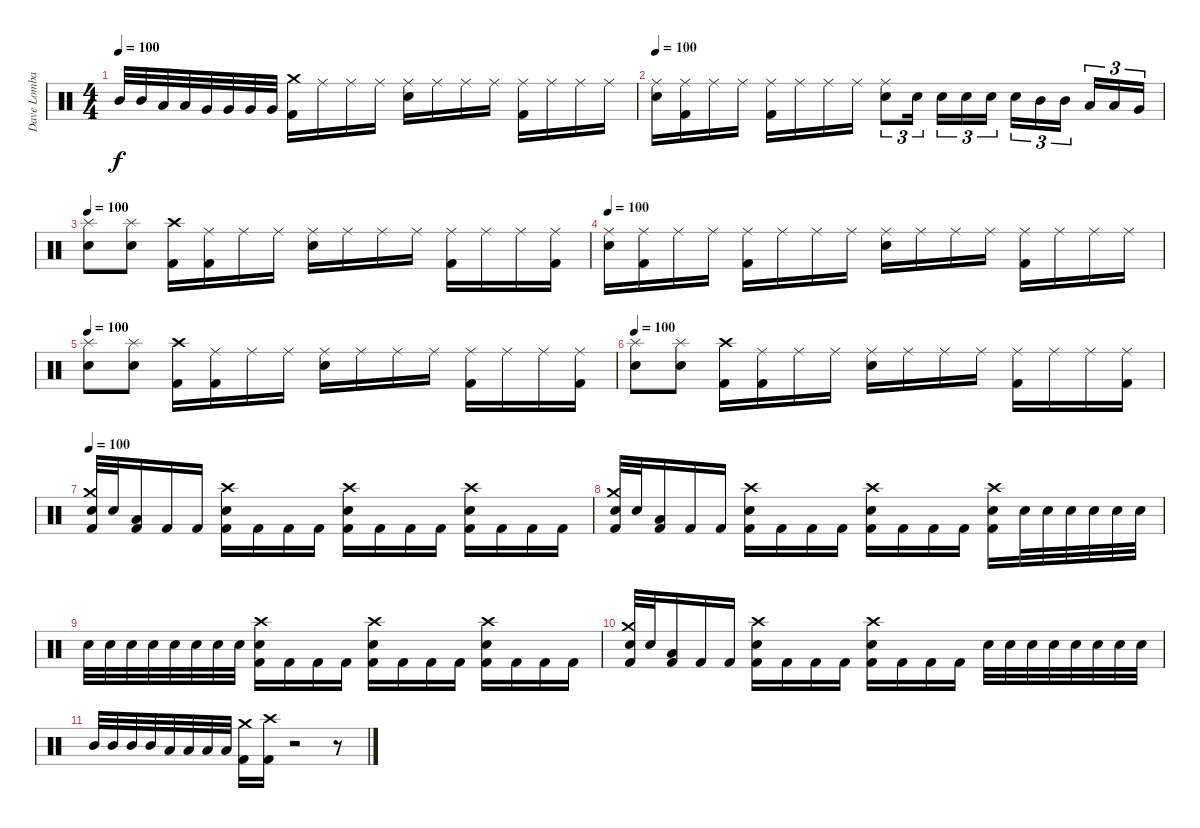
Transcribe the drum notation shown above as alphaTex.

\track ("Dave Lombardo" "Dave Lomba") {instrument percussion}
\staff {score}
\articulation defaults
\ts (4 4)
\tempo 100
\clef neutral
\ks c "Mid Tom (hit)".32{dy f} "Mid Tom (hit)".32 "Low Tom (hit)".32 "Low Tom (hit)".32 "Very Low Tom (hit)".32 "Very Low Tom (hit)".32 "Very Low Tom (hit)".32 "Very Low Tom (hit)".32
("Kick (hit) 2" "Crash medium (hit)").16 "Ride (middle)".16 "Ride (middle)".16 "Ride (middle)".16 ("Electric Snare (hit)" "Ride (middle)").16 "Ride (middle)".16 "Ride (middle)".16 "Ride (middle)".16 ("Kick (hit) 2" "Ride (middle)").16 "Ride (middle)".16 "Ride (middle)".16 "Ride (middle)".16 |
\tempo 100
("Electric Snare (hit)" "Ride (middle)").16 ("Kick (hit) 2" "Ride (middle)").16 "Ride (middle)".16 "Ride (middle)".16 ("Kick (hit) 2" "Ride (middle)").16 "Ride (middle)".16 "Ride (middle)".16 "Ride (middle)".16 ("Electric Snare (hit)" "Ride (middle)").8{tu (3 2)} "Electric Snare (hit)".16{tu (3 2)} "Electric Snare (hit)".16{tu (3 2)} "Electric Snare (hit)".16{tu (3 2)} "Electric Snare (hit)".16{tu (3 2)} "Electric Snare (hit)".16{tu (3 2)} "Mid Tom (hit)".16{tu (3 2)} "Mid Tom (hit)".16{tu (3 2)} "Low Tom (hit)".16{tu (3 2)} "Low Tom (hit)".16{tu (3 2)} "Very Low Tom (hit)".16{tu (3 2)} |
\tempo 100
("Splash (hit)" "Electric Snare (hit)").8 ("Splash (hit)" "Electric Snare (hit)").8 ("Kick (hit) 2" "Crash high (hit)").16 ("Kick (hit) 2" "Ride (middle)").16 "Ride (middle)".16 "Ride (middle)".16 ("Electric Snare (hit)" "Ride (middle)").16 "Ride (middle)".16 "Ride (middle)".16 "Ride (middle)".16 ("Kick (hit) 2" "Ride (middle)").16 "Ride (middle)".16 "Ride (middle)".16 ("Kick (hit) 2" "Ride (middle)").16 |
\tempo 100
("Electric Snare (hit)" "Ride (middle)").16 ("Kick (hit) 2" "Ride (middle)").16 "Ride (middle)".16 "Ride (middle)".16 ("Kick (hit) 2" "Ride (middle)").16 "Ride (middle)".16 "Ride (middle)".16 "Ride (middle)".16 ("Electric Snare (hit)" "Ride (middle)").16 "Ride (middle)".16 "Ride (middle)".16 "Ride (middle)".16 ("Kick (hit) 2" "Ride (middle)").16 "Ride (middle)".16 "Ride (middle)".16 "Ride (middle)".16 |
\tempo 100
("Splash (hit)" "Electric Snare (hit)").8 ("Splash (hit)" "Electric Snare (hit)").8 ("Kick (hit) 2" "Crash high (hit)").16 ("Kick (hit) 2" "Ride (middle)").16 "Ride (middle)".16 "Ride (middle)".16 ("Electric Snare (hit)" "Ride (middle)").16 "Ride (middle)".16 "Ride (middle)".16 "Ride (middle)".16 ("Kick (hit) 2" "Ride (middle)").16 "Ride (middle)".16 "Ride (middle)".16 ("Kick (hit) 2" "Ride (middle)").16 |
\tempo 100
("Splash (hit)" "Electric Snare (hit)").8 ("Splash (hit)" "Electric Snare (hit)").8 ("Kick (hit) 2" "Crash high (hit)").16 ("Kick (hit) 2" "Ride (middle)").16 "Ride (middle)".16 "Ride (middle)".16 ("Electric Snare (hit)" "Ride (middle)").16 "Ride (middle)".16 "Ride (middle)".16 "Ride (middle)".16 ("Kick (hit) 2" "Ride (middle)").16 "Ride (middle)".16 "Ride (middle)".16 ("Kick (hit) 2" "Ride (middle)").16 |
\tempo 100
("Crash medium (hit)" "Electric Snare (hit)" "Kick (hit) 2").32 "Electric Snare (hit)".32 ("Low Tom (hit)" "Kick (hit) 2").16 "Kick (hit) 2".16 "Kick (hit) 2".16 ("Crash high (hit)" "Electric Snare (hit)" "Kick (hit) 2").16 "Kick (hit) 2".16 "Kick (hit) 2".16 "Kick (hit) 2".16 ("Crash high (hit)" "Electric Snare (hit)" "Kick (hit) 2").16 "Kick (hit) 2".16 "Kick (hit) 2".16 "Kick (hit) 2".16 ("Crash high (hit)" "Electric Snare (hit)" "Kick (hit) 2").16 "Kick (hit) 2".16 "Kick (hit) 2".16 "Kick (hit) 2".16 |
("Crash medium (hit)" "Electric Snare (hit)" "Kick (hit) 2").32 "Electric Snare (hit)".32 ("Low Tom (hit)" "Kick (hit) 2").16 "Kick (hit) 2".16 "Kick (hit) 2".16 ("Crash high (hit)" "Electric Snare (hit)" "Kick (hit) 2").16 "Kick (hit) 2".16 "Kick (hit) 2".16 "Kick (hit) 2".16 ("Crash high (hit)" "Electric Snare (hit)" "Kick (hit) 2").16 "Kick (hit) 2".16 "Kick (hit) 2".16 "Kick (hit) 2".16 ("Crash high (hit)" "Electric Snare (hit)" "Kick (hit) 2").16 "Electric Snare (hit)".32 "Electric Snare (hit)".32 "Electric Snare (hit)".32 "Electric Snare (hit)".32 "Electric Snare (hit)".32 "Electric Snare (hit)".32 |
"Electric Snare (hit)".32 "Electric Snare (hit)".32 "Electric Snare (hit)".32 "Electric Snare (hit)".32 "Electric Snare (hit)".32 "Electric Snare (hit)".32 "Electric Snare (hit)".32 "Electric Snare (hit)".32 ("Crash high (hit)" "Electric Snare (hit)" "Kick (hit) 2").16 "Kick (hit) 2".16 "Kick (hit) 2".16 "Kick (hit) 2".16 ("Crash high (hit)" "Electric Snare (hit)" "Kick (hit) 2").16 "Kick (hit) 2".16 "Kick (hit) 2".16 "Kick (hit) 2".16 ("Crash high (hit)" "Electric Snare (hit)" "Kick (hit) 2").16 "Kick (hit) 2".16 "Kick (hit) 2".16 "Kick (hit) 2".16 |
("Crash medium (hit)" "Electric Snare (hit)" "Kick (hit) 2").32 "Electric Snare (hit)".32 ("Low Tom (hit)" "Kick (hit) 2").16 "Kick (hit) 2".16 "Kick (hit) 2".16 ("Crash high (hit)" "Electric Snare (hit)" "Kick (hit) 2").16 "Kick (hit) 2".16 "Kick (hit) 2".16 "Kick (hit) 2".16 ("Crash high (hit)" "Electric Snare (hit)" "Kick (hit) 2").16 "Kick (hit) 2".16 "Kick (hit) 2".16 "Kick (hit) 2".16 "Electric Snare (hit)".32 "Electric Snare (hit)".32 "Electric Snare (hit)".32 "Electric Snare (hit)".32 "Electric Snare (hit)".32 "Electric Snare (hit)".32 "Electric Snare (hit)".32 "Electric Snare (hit)".32 |
"Mid Tom (hit)".32 "Mid Tom (hit)".32 "Mid Tom (hit)".32 "Mid Tom (hit)".32 "Low Tom (hit)".32 "Low Tom (hit)".32 "Low Tom (hit)".32 "Low Tom (hit)".32 ("Crash medium (hit)" "Kick (hit) 2").16 ("Crash high (hit)" "Kick (hit) 2").16 r.2 r.8
